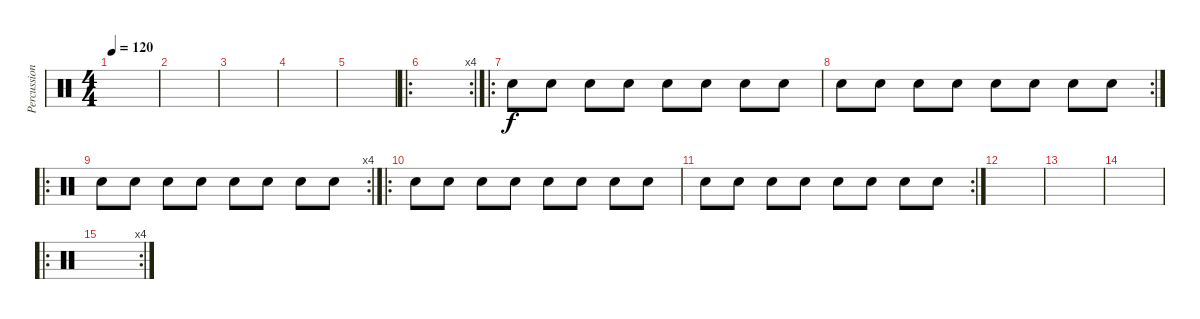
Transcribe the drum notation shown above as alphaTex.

\track ("Percussions" "Percussion") {instrument percussion}
\staff {score}
\articulation defaults
\ts (4 4)
\tempo 120
\clef neutral
\ks c
|
|
|
|
|
\ro
\rc 4
|
\ro "Hand Clap (hit)".8 "Hand Clap (hit)".8 "Hand Clap (hit)".8 "Hand Clap (hit)".8 "Hand Clap (hit)".8 "Hand Clap (hit)".8 "Hand Clap (hit)".8 "Hand Clap (hit)".8
|
\rc 2 "Hand Clap (hit)".8 "Hand Clap (hit)".8 "Hand Clap (hit)".8 "Hand Clap (hit)".8 "Hand Clap (hit)".8 "Hand Clap (hit)".8 "Hand Clap (hit)".8 "Hand Clap (hit)".8
|
\ro
\rc 4 "Hand Clap (hit)".8 "Hand Clap (hit)".8 "Hand Clap (hit)".8 "Hand Clap (hit)".8 "Hand Clap (hit)".8 "Hand Clap (hit)".8 "Hand Clap (hit)".8 "Hand Clap (hit)".8
|
\ro "Hand Clap (hit)".8 "Hand Clap (hit)".8 "Hand Clap (hit)".8 "Hand Clap (hit)".8 "Hand Clap (hit)".8 "Hand Clap (hit)".8 "Hand Clap (hit)".8 "Hand Clap (hit)".8
|
\rc 2 "Hand Clap (hit)".8 "Hand Clap (hit)".8 "Hand Clap (hit)".8 "Hand Clap (hit)".8 "Hand Clap (hit)".8 "Hand Clap (hit)".8 "Hand Clap (hit)".8 "Hand Clap (hit)".8
|
|
|
|
\ro
\rc 4
